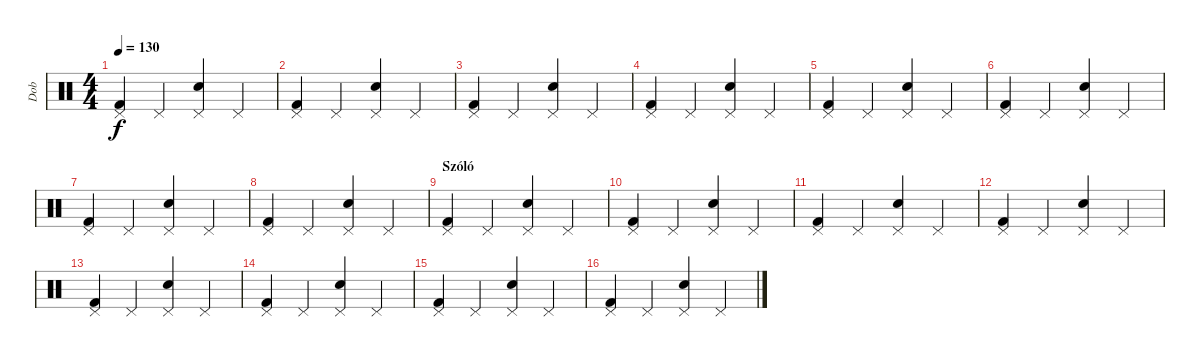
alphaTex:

\track ("Dob" "Dob") {instrument percussion}
\staff {score}
\articulation defaults
\ts (4 4)
\tempo 130
\clef neutral
\ks c
("Pedal Hi-Hat (hit)" "Kick (hit) 2").4{dy f} "Pedal Hi-Hat (hit)".4 ("Pedal Hi-Hat (hit)" "Snare (hit) 2").4 "Pedal Hi-Hat (hit)".4 |
("Pedal Hi-Hat (hit)" "Kick (hit) 2").4 "Pedal Hi-Hat (hit)".4 ("Pedal Hi-Hat (hit)" "Snare (hit) 2").4 "Pedal Hi-Hat (hit)".4 |
("Pedal Hi-Hat (hit)" "Kick (hit) 2").4 "Pedal Hi-Hat (hit)".4 ("Pedal Hi-Hat (hit)" "Snare (hit) 2").4 "Pedal Hi-Hat (hit)".4 |
("Pedal Hi-Hat (hit)" "Kick (hit) 2").4 "Pedal Hi-Hat (hit)".4 ("Pedal Hi-Hat (hit)" "Snare (hit) 2").4 "Pedal Hi-Hat (hit)".4 |
("Pedal Hi-Hat (hit)" "Kick (hit) 2").4 "Pedal Hi-Hat (hit)".4 ("Pedal Hi-Hat (hit)" "Snare (hit) 2").4 "Pedal Hi-Hat (hit)".4 |
("Pedal Hi-Hat (hit)" "Kick (hit) 2").4 "Pedal Hi-Hat (hit)".4 ("Pedal Hi-Hat (hit)" "Snare (hit) 2").4 "Pedal Hi-Hat (hit)".4 |
("Pedal Hi-Hat (hit)" "Kick (hit) 2").4 "Pedal Hi-Hat (hit)".4 ("Pedal Hi-Hat (hit)" "Snare (hit) 2").4 "Pedal Hi-Hat (hit)".4 |
("Pedal Hi-Hat (hit)" "Kick (hit) 2").4 "Pedal Hi-Hat (hit)".4 ("Pedal Hi-Hat (hit)" "Snare (hit) 2").4 "Pedal Hi-Hat (hit)".4 |
\section ("" "Szóló")
("Pedal Hi-Hat (hit)" "Kick (hit) 2").4 "Pedal Hi-Hat (hit)".4 ("Pedal Hi-Hat (hit)" "Snare (hit) 2").4 "Pedal Hi-Hat (hit)".4 |
("Pedal Hi-Hat (hit)" "Kick (hit) 2").4 "Pedal Hi-Hat (hit)".4 ("Pedal Hi-Hat (hit)" "Snare (hit) 2").4 "Pedal Hi-Hat (hit)".4 |
("Pedal Hi-Hat (hit)" "Kick (hit) 2").4 "Pedal Hi-Hat (hit)".4 ("Pedal Hi-Hat (hit)" "Snare (hit) 2").4 "Pedal Hi-Hat (hit)".4 |
("Pedal Hi-Hat (hit)" "Kick (hit) 2").4 "Pedal Hi-Hat (hit)".4 ("Pedal Hi-Hat (hit)" "Snare (hit) 2").4 "Pedal Hi-Hat (hit)".4 |
("Pedal Hi-Hat (hit)" "Kick (hit) 2").4 "Pedal Hi-Hat (hit)".4 ("Pedal Hi-Hat (hit)" "Snare (hit) 2").4 "Pedal Hi-Hat (hit)".4 |
("Pedal Hi-Hat (hit)" "Kick (hit) 2").4 "Pedal Hi-Hat (hit)".4 ("Pedal Hi-Hat (hit)" "Snare (hit) 2").4 "Pedal Hi-Hat (hit)".4 |
("Pedal Hi-Hat (hit)" "Kick (hit) 2").4 "Pedal Hi-Hat (hit)".4 ("Pedal Hi-Hat (hit)" "Snare (hit) 2").4 "Pedal Hi-Hat (hit)".4 |
("Pedal Hi-Hat (hit)" "Kick (hit) 2").4 "Pedal Hi-Hat (hit)".4 ("Pedal Hi-Hat (hit)" "Snare (hit) 2").4 "Pedal Hi-Hat (hit)".4
